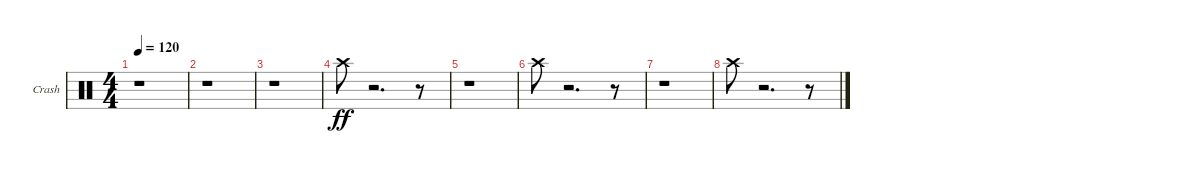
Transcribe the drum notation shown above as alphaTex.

\bracketExtendMode groupsimilarinstruments
\singleTrackTrackNamePolicy allsystems
\multiTrackTrackNamePolicy allsystems
\firstSystemTrackNameOrientation horizontal
\otherSystemsTrackNameOrientation horizontal
\track ("Cymbal" "Crash") {instrument percussion}
\staff {score}
\articulation defaults
\ts (4 4)
\tempo 120
\clef neutral
\scale
0.333333
\ks c
r.1{dy ff} |
\scale
0.333333 r.1 |
\scale
0.333333 r.1 |
\scale
0.333333 "Crash high (hit)".8 r.2{d} r.8 |
\scale
0.333333 r.1 |
"Crash high (hit)".8 r.2{d} r.8 |
r.1 |
"Crash high (hit)".8 r.2{d} r.8
